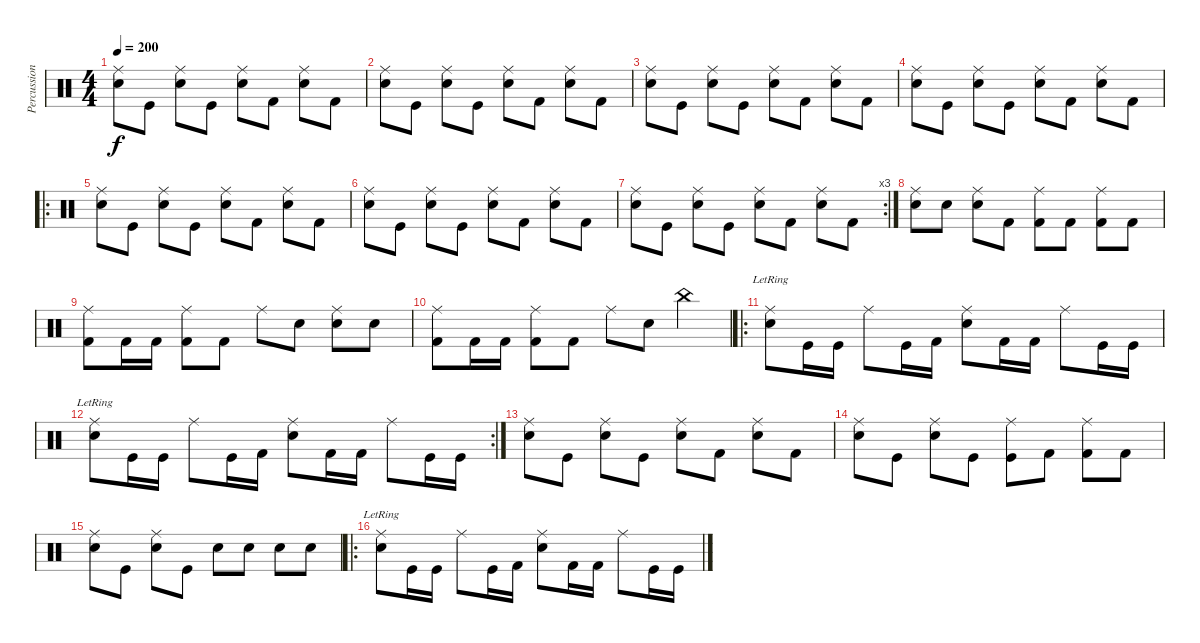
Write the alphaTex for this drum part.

\track ("Percussion" "Percussion") {instrument percussion}
\staff {score}
\articulation defaults
\ts (4 4)
\tempo 200
\clef neutral
\ks c
("Ride (middle)" "Electric Snare (hit)").8{dy f} "Kick (hit)".8 ("Ride (middle)" "Electric Snare (hit)").8 "Kick (hit)".8 ("Ride (middle)" "Electric Snare (hit)").8 "Kick (hit) 2".8 ("Ride (middle)" "Electric Snare (hit)").8 "Kick (hit) 2".8 |
("Ride (middle)" "Electric Snare (hit)").8 "Kick (hit)".8 ("Ride (middle)" "Electric Snare (hit)").8 "Kick (hit)".8 ("Ride (middle)" "Electric Snare (hit)").8 "Kick (hit) 2".8 ("Ride (middle)" "Electric Snare (hit)").8 "Kick (hit) 2".8 |
("Ride (middle)" "Electric Snare (hit)").8 "Kick (hit)".8 ("Ride (middle)" "Electric Snare (hit)").8 "Kick (hit)".8 ("Ride (middle)" "Electric Snare (hit)").8 "Kick (hit) 2".8 ("Ride (middle)" "Electric Snare (hit)").8 "Kick (hit) 2".8 |
("Ride (middle)" "Electric Snare (hit)").8 "Kick (hit)".8 ("Ride (middle)" "Electric Snare (hit)").8 "Kick (hit)".8 ("Ride (middle)" "Electric Snare (hit)").8 "Kick (hit) 2".8 ("Ride (middle)" "Electric Snare (hit)").8 "Kick (hit) 2".8 |
\ro
("Ride (middle)" "Electric Snare (hit)").8 "Kick (hit)".8 ("Ride (middle)" "Electric Snare (hit)").8 "Kick (hit)".8 ("Ride (middle)" "Electric Snare (hit)").8 "Kick (hit) 2".8 ("Ride (middle)" "Electric Snare (hit)").8 "Kick (hit) 2".8 |
("Ride (middle)" "Electric Snare (hit)").8 "Kick (hit)".8 ("Ride (middle)" "Electric Snare (hit)").8 "Kick (hit)".8 ("Ride (middle)" "Electric Snare (hit)").8 "Kick (hit) 2".8 ("Ride (middle)" "Electric Snare (hit)").8 "Kick (hit) 2".8 |
\rc 3
("Ride (middle)" "Electric Snare (hit)").8 "Kick (hit)".8 ("Ride (middle)" "Electric Snare (hit)").8 "Kick (hit)".8 ("Ride (middle)" "Electric Snare (hit)").8 "Kick (hit) 2".8 ("Ride (middle)" "Electric Snare (hit)").8 "Kick (hit) 2".8 |
("Ride (middle)" "Electric Snare (hit)").8 "Electric Snare (hit)".8 ("Ride (middle)" "Electric Snare (hit)").8 "Kick (hit) 2".8 ("Ride (middle)" "Kick (hit) 2").8 "Kick (hit) 2".8 ("Ride (middle)" "Kick (hit) 2").8 "Kick (hit) 2".8 |
("Ride (middle)" "Kick (hit) 2").8 "Kick (hit) 2".16 "Kick (hit) 2".16 ("Ride (middle)" "Kick (hit) 2").8 "Kick (hit) 2".8 "Ride (middle)".8 "Electric Snare (hit)".8 ("Ride (middle)" "Electric Snare (hit)").8 "Electric Snare (hit)".8 |
("Ride (middle)" "Kick (hit) 2").8 "Kick (hit) 2".16 "Kick (hit) 2".16 ("Ride (middle)" "Kick (hit) 2").8 "Kick (hit) 2".8 "Ride (middle)".8 "Electric Snare (hit)".8 "China (hit)".4 |
\ro
("Ride (middle)"{lr} "Electric Snare (hit)").8 "Kick (hit)".16 "Kick (hit)".16 "Ride (middle)".8 "Kick (hit)".16 "Kick (hit) 2".16 ("Ride (middle)" "Electric Snare (hit)").8 "Kick (hit) 2".16 "Kick (hit) 2".16 "Ride (middle)".8 "Kick (hit)".16 "Kick (hit)".16 |
\rc 2
("Ride (middle)"{lr} "Electric Snare (hit)").8 "Kick (hit)".16 "Kick (hit)".16 "Ride (middle)".8 "Kick (hit)".16 "Kick (hit) 2".16 ("Ride (middle)" "Electric Snare (hit)").8 "Kick (hit) 2".16 "Kick (hit) 2".16 "Ride (middle)".8 "Kick (hit)".16 "Kick (hit)".16 |
("Ride (middle)" "Electric Snare (hit)").8 "Kick (hit)".8 ("Ride (middle)" "Electric Snare (hit)").8 "Kick (hit)".8 ("Ride (middle)" "Electric Snare (hit)").8 "Kick (hit) 2".8 ("Ride (middle)" "Electric Snare (hit)").8 "Kick (hit) 2".8 |
("Ride (middle)" "Electric Snare (hit)").8 "Kick (hit)".8 ("Ride (middle)" "Electric Snare (hit)").8 "Kick (hit)".8 ("Ride (middle)" "Kick (hit)").8 "Kick (hit) 2".8 ("Ride (middle)" "Kick (hit) 2").8 "Kick (hit) 2".8 |
("Ride (middle)" "Electric Snare (hit)").8 "Kick (hit)".8 ("Ride (middle)" "Electric Snare (hit)").8 "Kick (hit)".8 "Electric Snare (hit)".8 "Electric Snare (hit)".8 "Electric Snare (hit)".8 "Electric Snare (hit)".8 |
\ro
("Ride (middle)"{lr} "Electric Snare (hit)").8 "Kick (hit)".16 "Kick (hit)".16 "Ride (middle)".8 "Kick (hit)".16 "Kick (hit) 2".16 ("Ride (middle)" "Electric Snare (hit)").8 "Kick (hit) 2".16 "Kick (hit) 2".16 "Ride (middle)".8 "Kick (hit)".16 "Kick (hit)".16
